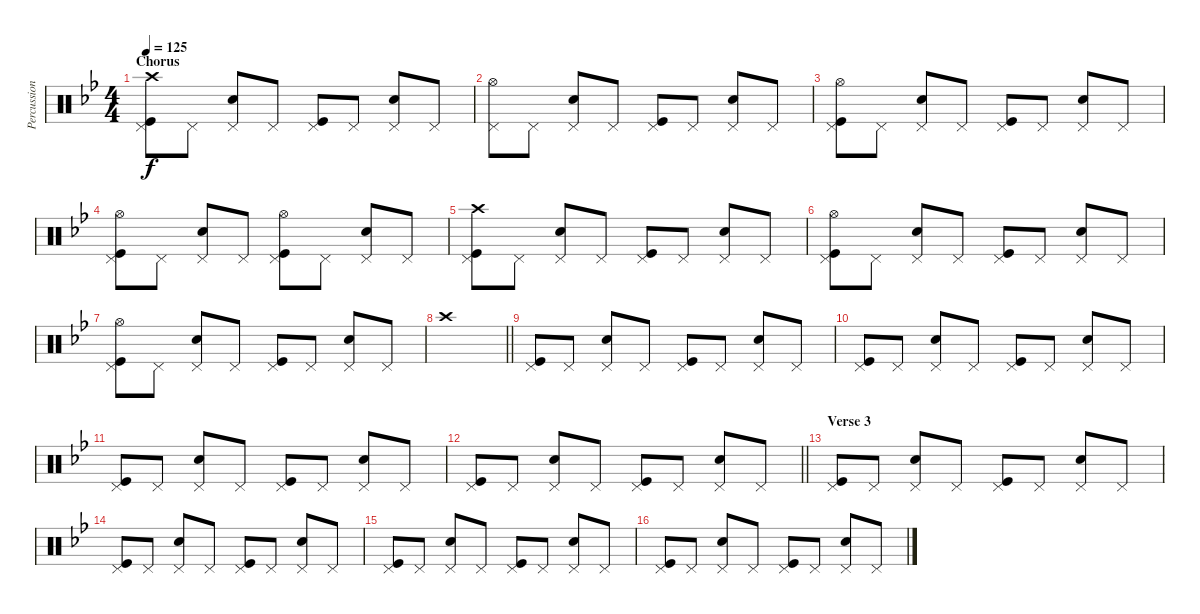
\track ("Percussion" "Percussion") {instrument percussion}
\staff {score}
\articulation defaults
\ts (4 4)
\section ("" "Chorus")
\tempo 125
\clef neutral
\ks bb
("Crash high (hit)" "Kick (hit)" "Pedal Hi-Hat (hit)").8{dy f} "Pedal Hi-Hat (hit)".8 ("Snare (hit) 2" "Pedal Hi-Hat (hit)").8 "Pedal Hi-Hat (hit)".8 ("Kick (hit)" "Pedal Hi-Hat (hit)").8 "Pedal Hi-Hat (hit)".8 ("Snare (hit) 2" "Pedal Hi-Hat (hit)").8 "Pedal Hi-Hat (hit)".8 |
("Hi-Hat (open)" "Pedal Hi-Hat (hit)").8 "Pedal Hi-Hat (hit)".8 ("Snare (hit) 2" "Pedal Hi-Hat (hit)").8 "Pedal Hi-Hat (hit)".8 ("Kick (hit)" "Pedal Hi-Hat (hit)").8 "Pedal Hi-Hat (hit)".8 ("Snare (hit) 2" "Pedal Hi-Hat (hit)").8 "Pedal Hi-Hat (hit)".8 |
("Hi-Hat (open)" "Kick (hit)" "Pedal Hi-Hat (hit)").8 "Pedal Hi-Hat (hit)".8 ("Snare (hit) 2" "Pedal Hi-Hat (hit)").8 "Pedal Hi-Hat (hit)".8 ("Kick (hit)" "Pedal Hi-Hat (hit)").8 "Pedal Hi-Hat (hit)".8 ("Snare (hit) 2" "Pedal Hi-Hat (hit)").8 "Pedal Hi-Hat (hit)".8 |
("Hi-Hat (open)" "Kick (hit)" "Pedal Hi-Hat (hit)").8 "Pedal Hi-Hat (hit)".8 ("Snare (hit) 2" "Pedal Hi-Hat (hit)").8 "Pedal Hi-Hat (hit)".8 ("Hi-Hat (open)" "Kick (hit)" "Pedal Hi-Hat (hit)").8 "Pedal Hi-Hat (hit)".8 ("Snare (hit) 2" "Pedal Hi-Hat (hit)").8 "Pedal Hi-Hat (hit)".8 |
("Crash high (hit)" "Kick (hit)" "Pedal Hi-Hat (hit)").8 "Pedal Hi-Hat (hit)".8 ("Snare (hit) 2" "Pedal Hi-Hat (hit)").8 "Pedal Hi-Hat (hit)".8 ("Kick (hit)" "Pedal Hi-Hat (hit)").8 "Pedal Hi-Hat (hit)".8 ("Snare (hit) 2" "Pedal Hi-Hat (hit)").8 "Pedal Hi-Hat (hit)".8 |
("Hi-Hat (open)" "Kick (hit)" "Pedal Hi-Hat (hit)").8 "Pedal Hi-Hat (hit)".8 ("Snare (hit) 2" "Pedal Hi-Hat (hit)").8 "Pedal Hi-Hat (hit)".8 ("Kick (hit)" "Pedal Hi-Hat (hit)").8 "Pedal Hi-Hat (hit)".8 ("Snare (hit) 2" "Pedal Hi-Hat (hit)").8 "Pedal Hi-Hat (hit)".8 |
("Hi-Hat (open)" "Kick (hit)" "Pedal Hi-Hat (hit)").8 "Pedal Hi-Hat (hit)".8 ("Snare (hit) 2" "Pedal Hi-Hat (hit)").8 "Pedal Hi-Hat (hit)".8 ("Kick (hit)" "Pedal Hi-Hat (hit)").8 "Pedal Hi-Hat (hit)".8 ("Snare (hit) 2" "Pedal Hi-Hat (hit)").8 "Pedal Hi-Hat (hit)".8 |
\barLineRight lightlight "Crash high (hit)".1
|
("Kick (hit)" "Pedal Hi-Hat (hit)").8 "Pedal Hi-Hat (hit)".8 ("Snare (hit) 2" "Pedal Hi-Hat (hit)").8 "Pedal Hi-Hat (hit)".8 ("Kick (hit)" "Pedal Hi-Hat (hit)").8 "Pedal Hi-Hat (hit)".8 ("Snare (hit) 2" "Pedal Hi-Hat (hit)").8 "Pedal Hi-Hat (hit)".8 |
("Kick (hit)" "Pedal Hi-Hat (hit)").8 "Pedal Hi-Hat (hit)".8 ("Snare (hit) 2" "Pedal Hi-Hat (hit)").8 "Pedal Hi-Hat (hit)".8 ("Kick (hit)" "Pedal Hi-Hat (hit)").8 "Pedal Hi-Hat (hit)".8 ("Snare (hit) 2" "Pedal Hi-Hat (hit)").8 "Pedal Hi-Hat (hit)".8 |
("Kick (hit)" "Pedal Hi-Hat (hit)").8 "Pedal Hi-Hat (hit)".8 ("Snare (hit) 2" "Pedal Hi-Hat (hit)").8 "Pedal Hi-Hat (hit)".8 ("Kick (hit)" "Pedal Hi-Hat (hit)").8 "Pedal Hi-Hat (hit)".8 ("Snare (hit) 2" "Pedal Hi-Hat (hit)").8 "Pedal Hi-Hat (hit)".8 |
\barLineRight lightlight
("Kick (hit)" "Pedal Hi-Hat (hit)").8 "Pedal Hi-Hat (hit)".8 ("Snare (hit) 2" "Pedal Hi-Hat (hit)").8 "Pedal Hi-Hat (hit)".8 ("Kick (hit)" "Pedal Hi-Hat (hit)").8 "Pedal Hi-Hat (hit)".8 ("Snare (hit) 2" "Pedal Hi-Hat (hit)").8 "Pedal Hi-Hat (hit)".8 |
\section ("" "Verse 3")
("Kick (hit)" "Pedal Hi-Hat (hit)").8 "Pedal Hi-Hat (hit)".8 ("Snare (hit) 2" "Pedal Hi-Hat (hit)").8 "Pedal Hi-Hat (hit)".8 ("Kick (hit)" "Pedal Hi-Hat (hit)").8 "Pedal Hi-Hat (hit)".8 ("Snare (hit) 2" "Pedal Hi-Hat (hit)").8 "Pedal Hi-Hat (hit)".8 |
("Kick (hit)" "Pedal Hi-Hat (hit)").8 "Pedal Hi-Hat (hit)".8 ("Snare (hit) 2" "Pedal Hi-Hat (hit)").8 "Pedal Hi-Hat (hit)".8 ("Kick (hit)" "Pedal Hi-Hat (hit)").8 "Pedal Hi-Hat (hit)".8 ("Snare (hit) 2" "Pedal Hi-Hat (hit)").8 "Pedal Hi-Hat (hit)".8 |
("Kick (hit)" "Pedal Hi-Hat (hit)").8 "Pedal Hi-Hat (hit)".8 ("Snare (hit) 2" "Pedal Hi-Hat (hit)").8 "Pedal Hi-Hat (hit)".8 ("Kick (hit)" "Pedal Hi-Hat (hit)").8 "Pedal Hi-Hat (hit)".8 ("Snare (hit) 2" "Pedal Hi-Hat (hit)").8 "Pedal Hi-Hat (hit)".8 |
("Kick (hit)" "Pedal Hi-Hat (hit)").8 "Pedal Hi-Hat (hit)".8 ("Snare (hit) 2" "Pedal Hi-Hat (hit)").8 "Pedal Hi-Hat (hit)".8 ("Kick (hit)" "Pedal Hi-Hat (hit)").8 "Pedal Hi-Hat (hit)".8 ("Snare (hit) 2" "Pedal Hi-Hat (hit)").8 "Pedal Hi-Hat (hit)".8
